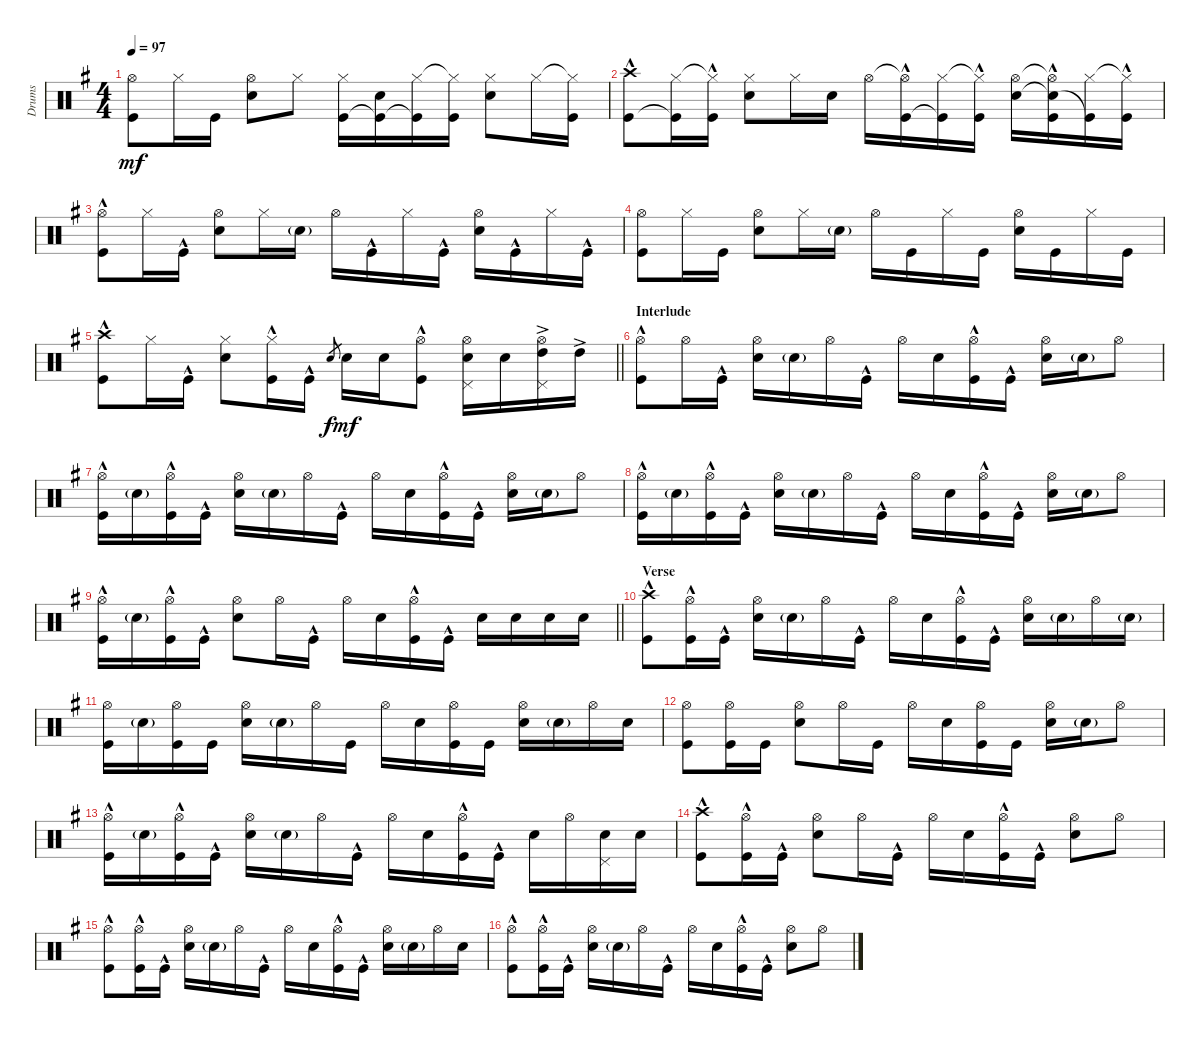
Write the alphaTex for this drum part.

\track ("Drums" "Drums") {instrument percussion}
\staff {score}
\articulation defaults
\ts (4 4)
\tempo 97
\clef neutral
\ks eminor
("Hi-Hat (open)" "Kick (hit)").8{dy mf} "Hi-Hat (closed)".16 "Kick (hit)".16 ("Hi-Hat (open)" "Snare (hit) 2").8 "Hi-Hat (closed)".8 ("Hi-Hat (closed)" "Kick (hit)").16 ("Snare (hit) 2" "Kick (hit)"{t}).16 ("Hi-Hat (closed)" "Kick (hit)"{t}).16 ("Hi-Hat (closed)"{t} "Kick (hit)").16 ("Hi-Hat (closed)" "Snare (hit) 2").8 "Hi-Hat (closed)".16 ("Hi-Hat (closed)"{t} "Kick (hit)").16 |
("Crash high (hit)" "Kick (hit)"{hac}).8 ("Hi-Hat (closed)" "Kick (hit)"{t}).16 ("Hi-Hat (closed)"{t} "Kick (hit)"{hac}).16 ("Hi-Hat (closed)" "Snare (hit) 2").8 "Hi-Hat (closed)".16 "Snare (hit) 2".16 "Hi-Hat (open)".16 ("Hi-Hat (open)"{t} "Kick (hit)"{hac}).16 ("Hi-Hat (closed)" "Kick (hit)"{t}).16 ("Hi-Hat (closed)"{t} "Kick (hit)"{hac}).16 ("Hi-Hat (open)" "Snare (hit) 2").16 ("Hi-Hat (open)"{t} "Snare (hit) 2"{t} "Kick (hit)"{hac}).16 ("Hi-Hat (closed)" "Kick (hit)"{t}).16 ("Hi-Hat (closed)"{t} "Kick (hit)"{hac}).16 |
("Hi-Hat (open)" "Kick (hit)"{hac}).8 "Hi-Hat (closed)".16 "Kick (hit)"{hac}.16 ("Hi-Hat (open)" "Snare (hit) 2").8 "Hi-Hat (closed)".16 "Snare (hit) 2"{g}.16 "Hi-Hat (open)".16 "Kick (hit)"{hac}.16 "Hi-Hat (closed)".16 "Kick (hit)"{hac}.16 ("Hi-Hat (open)" "Snare (hit) 2").16 "Kick (hit)"{hac}.16 "Hi-Hat (closed)".16 "Kick (hit)"{hac}.16 |
("Hi-Hat (open)" "Kick (hit)").8 "Hi-Hat (closed)".16 "Kick (hit)".16 ("Hi-Hat (open)" "Snare (hit) 2").8 "Hi-Hat (closed)".16 "Snare (hit) 2"{g}.16 "Hi-Hat (open)".16 "Kick (hit)".16 "Hi-Hat (closed)".16 "Kick (hit)".16 ("Hi-Hat (open)" "Snare (hit) 2").16 "Kick (hit)".16 "Hi-Hat (closed)".16 "Kick (hit)".16 |
\barLineRight lightlight
("Crash high (hit)" "Kick (hit)"{hac}).8 "Hi-Hat (closed)".16 "Kick (hit)"{hac}.16 ("Hi-Hat (closed)" "Snare (hit) 2").8 ("Hi-Hat (closed)" "Kick (hit)"{hac}).16 "Kick (hit)"{hac}.16 "Snare (hit) 2".8{gr dy f} "Snare (hit) 2".16{dy mf} "Snare (hit) 2".16 ("Hi-Hat (open)" "Kick (hit)"{hac}).8 ("Snare (hit) 2" "Pedal Hi-Hat (hit)" "Hi-Hat (open)").16 "Snare (hit) 2".16 ("High Tom (hit)"{ac} "Pedal Hi-Hat (hit)" "Hi-Hat (open)").16 "High Tom (hit)"{ac}.16 |
\section ("" "Interlude")
("Hi-Hat (open)" "Kick (hit)"{hac}).8 "Hi-Hat (open)".16 "Kick (hit)"{hac}.16 ("Hi-Hat (open)" "Snare (hit) 2").16 "Snare (hit) 2"{g}.16 "Hi-Hat (open)".16 "Kick (hit)"{hac}.16 "Hi-Hat (open)".16 "Snare (hit) 2".16 ("Hi-Hat (open)" "Kick (hit)"{hac}).16 "Kick (hit)"{hac}.16 ("Hi-Hat (open)" "Snare (hit) 2").16 "Snare (hit) 2"{g}.16 "Hi-Hat (open)".8 |
("Hi-Hat (open)" "Kick (hit)"{hac}).16 "Snare (hit) 2"{g}.16 ("Hi-Hat (open)" "Kick (hit)"{hac}).16 "Kick (hit)"{hac}.16 ("Hi-Hat (open)" "Snare (hit) 2").16 "Snare (hit) 2"{g}.16 "Hi-Hat (open)".16 "Kick (hit)"{hac}.16 "Hi-Hat (open)".16 "Snare (hit) 2".16 ("Hi-Hat (open)" "Kick (hit)"{hac}).16 "Kick (hit)"{hac}.16 ("Hi-Hat (open)" "Snare (hit) 2").16 "Snare (hit) 2"{g}.16 "Hi-Hat (open)".8 |
("Hi-Hat (open)" "Kick (hit)"{hac}).16 "Snare (hit) 2"{g}.16 ("Hi-Hat (open)" "Kick (hit)"{hac}).16 "Kick (hit)"{hac}.16 ("Hi-Hat (open)" "Snare (hit) 2").16 "Snare (hit) 2"{g}.16 "Hi-Hat (open)".16 "Kick (hit)"{hac}.16 "Hi-Hat (open)".16 "Snare (hit) 2".16 ("Hi-Hat (open)" "Kick (hit)"{hac}).16 "Kick (hit)"{hac}.16 ("Hi-Hat (open)" "Snare (hit) 2").16 "Snare (hit) 2"{g}.16 "Hi-Hat (open)".8 |
\barLineRight lightlight
("Hi-Hat (open)" "Kick (hit)"{hac}).16 "Snare (hit) 2"{g}.16 ("Hi-Hat (open)" "Kick (hit)"{hac}).16 "Kick (hit)"{hac}.16 ("Hi-Hat (open)" "Snare (hit) 2").8 "Hi-Hat (open)".16 "Kick (hit)"{hac}.16 "Hi-Hat (open)".16 "Snare (hit) 2".16 ("Hi-Hat (open)" "Kick (hit)"{hac}).16 "Kick (hit)"{hac}.16 "Snare (hit) 2".16 "Snare (hit) 2".16 "Snare (hit) 2".16 "Snare (hit) 2".16 |
\section ("" "Verse")
("Crash high (hit)" "Kick (hit)"{hac}).8 ("Hi-Hat (open)" "Kick (hit)"{hac}).16 "Kick (hit)"{hac}.16 ("Hi-Hat (open)" "Snare (hit) 2").16 "Snare (hit) 2"{g}.16 "Hi-Hat (open)".16 "Kick (hit)"{hac}.16 "Hi-Hat (open)".16 "Snare (hit) 2".16 ("Hi-Hat (open)" "Kick (hit)"{hac}).16 "Kick (hit)"{hac}.16 ("Hi-Hat (open)" "Snare (hit) 2").16 "Snare (hit) 2"{g}.16 "Hi-Hat (open)".16 "Snare (hit) 2"{g}.16 |
("Hi-Hat (open)" "Kick (hit)").16 "Snare (hit) 2"{g}.16 ("Hi-Hat (open)" "Kick (hit)").16 "Kick (hit)".16 ("Hi-Hat (open)" "Snare (hit) 2").16 "Snare (hit) 2"{g}.16 "Hi-Hat (open)".16 "Kick (hit)".16 "Hi-Hat (open)".16 "Snare (hit) 2".16 ("Hi-Hat (open)" "Kick (hit)").16 "Kick (hit)".16 ("Hi-Hat (open)" "Snare (hit) 2").16 "Snare (hit) 2"{g}.16 "Hi-Hat (open)".16 "Snare (hit) 2".16 |
("Hi-Hat (open)" "Kick (hit)").8 ("Hi-Hat (open)" "Kick (hit)").16 "Kick (hit)".16 ("Hi-Hat (open)" "Snare (hit) 2").8 "Hi-Hat (open)".16 "Kick (hit)".16 "Hi-Hat (open)".16 "Snare (hit) 2".16 ("Hi-Hat (open)" "Kick (hit)").16 "Kick (hit)".16 ("Hi-Hat (open)" "Snare (hit) 2").16 "Snare (hit) 2"{g}.16 "Hi-Hat (open)".8 |
("Hi-Hat (open)" "Kick (hit)"{hac}).16 "Snare (hit) 2"{g}.16 ("Hi-Hat (open)" "Kick (hit)"{hac}).16 "Kick (hit)"{hac}.16 ("Hi-Hat (open)" "Snare (hit) 2").16 "Snare (hit) 2"{g}.16 "Hi-Hat (open)".16 "Kick (hit)"{hac}.16 "Hi-Hat (open)".16 "Snare (hit) 2".16 ("Hi-Hat (open)" "Kick (hit)"{hac}).16 "Kick (hit)"{hac}.16 "Snare (hit) 2".16 "Hi-Hat (open)".16 ("Snare (hit) 2" "Pedal Hi-Hat (hit)").16 "Snare (hit) 2".16 |
("Crash high (hit)" "Kick (hit)"{hac}).8 ("Hi-Hat (open)" "Kick (hit)"{hac}).16 "Kick (hit)"{hac}.16 ("Hi-Hat (open)" "Snare (hit) 2").8 "Hi-Hat (open)".16 "Kick (hit)"{hac}.16 "Hi-Hat (open)".16 "Snare (hit) 2".16 ("Hi-Hat (open)" "Kick (hit)"{hac}).16 "Kick (hit)"{hac}.16 ("Hi-Hat (open)" "Snare (hit) 2").8 "Hi-Hat (open)".8 |
("Hi-Hat (open)" "Kick (hit)"{hac}).8 ("Hi-Hat (open)" "Kick (hit)"{hac}).16 "Kick (hit)"{hac}.16 ("Hi-Hat (open)" "Snare (hit) 2").16 "Snare (hit) 2"{g}.16 "Hi-Hat (open)".16 "Kick (hit)"{hac}.16 "Hi-Hat (open)".16 "Snare (hit) 2".16 ("Hi-Hat (open)" "Kick (hit)"{hac}).16 "Kick (hit)"{hac}.16 ("Hi-Hat (open)" "Snare (hit) 2").16 "Snare (hit) 2"{g}.16 "Hi-Hat (open)".16 "Snare (hit) 2".16 |
("Hi-Hat (open)" "Kick (hit)"{hac}).8 ("Hi-Hat (open)" "Kick (hit)"{hac}).16 "Kick (hit)"{hac}.16 ("Hi-Hat (open)" "Snare (hit) 2").16 "Snare (hit) 2"{g}.16 "Hi-Hat (open)".16 "Kick (hit)"{hac}.16 "Hi-Hat (open)".16 "Snare (hit) 2".16 ("Hi-Hat (open)" "Kick (hit)"{hac}).16 "Kick (hit)"{hac}.16 ("Hi-Hat (open)" "Snare (hit) 2").8 "Hi-Hat (open)".8
